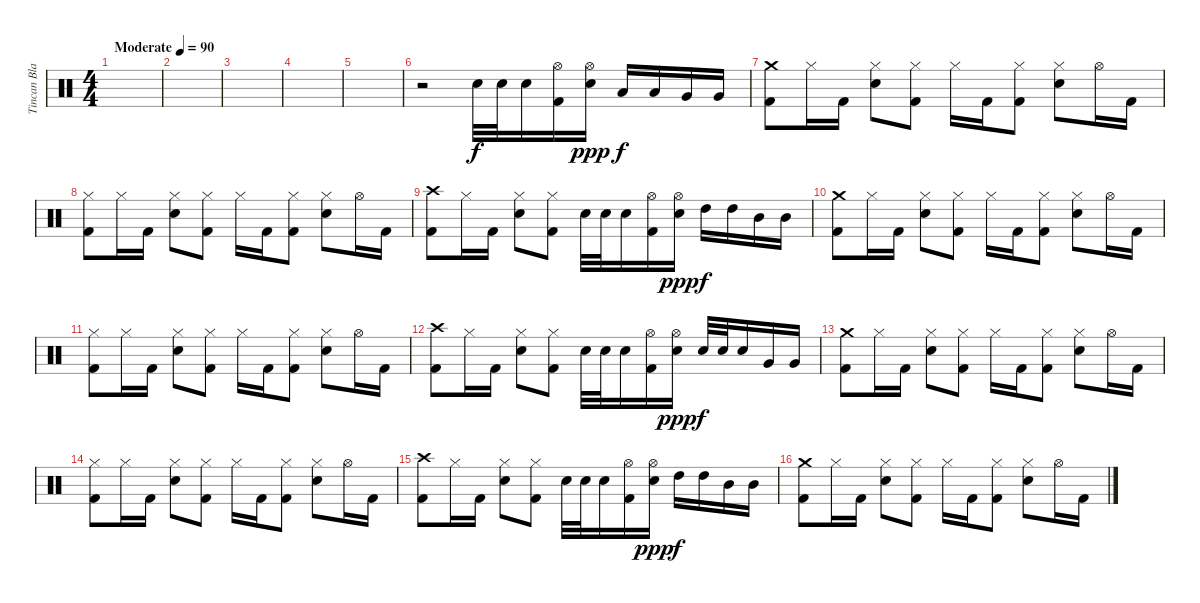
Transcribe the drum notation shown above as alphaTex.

\track ("Tincan Blaster" "Tincan Bla") {instrument percussion}
\staff {score}
\articulation defaults
\ts (4 4)
\tempo (90 "Moderate")
\clef neutral
\ks c
|
|
|
|
|
r.2 "Electric Snare (hit)".32 "Electric Snare (hit)".32 "Electric Snare (hit)".16 ("Hi-Hat (open)" "Kick (hit) 2").16 ("Hi-Hat (open)" "Electric Snare (hit)").16{dy ppp} "Low Tom (hit)".16{dy f} "Low Tom (hit)".16 "Very Low Tom (hit)".16 "Very Low Tom (hit)".16 |
("Crash medium (hit)" "Kick (hit) 2").8 "Hi-Hat (closed)".16 "Kick (hit) 2".16 ("Hi-Hat (closed)" "Electric Snare (hit)").8 ("Hi-Hat (closed)" "Kick (hit) 2").8 "Hi-Hat (closed)".16 "Kick (hit) 2".16 ("Hi-Hat (closed)" "Kick (hit) 2").8 ("Hi-Hat (closed)" "Electric Snare (hit)").8 "Hi-Hat (open)".16 "Kick (hit) 2".16 |
("Hi-Hat (closed)" "Kick (hit) 2").8 "Hi-Hat (closed)".16 "Kick (hit) 2".16 ("Hi-Hat (closed)" "Electric Snare (hit)").8 ("Hi-Hat (closed)" "Kick (hit) 2").8 "Hi-Hat (closed)".16 "Kick (hit) 2".16 ("Hi-Hat (closed)" "Kick (hit) 2").8 ("Hi-Hat (closed)" "Electric Snare (hit)").8 "Hi-Hat (open)".16 "Kick (hit) 2".16 |
("Crash high (hit)" "Kick (hit) 2").8 "Hi-Hat (closed)".16 "Kick (hit) 2".16 ("Hi-Hat (closed)" "Electric Snare (hit)").8 ("Hi-Hat (closed)" "Kick (hit) 2").8 "Electric Snare (hit)".32 "Electric Snare (hit)".32 "Electric Snare (hit)".16 ("Hi-Hat (open)" "Kick (hit) 2").16 ("Hi-Hat (open)" "Electric Snare (hit)").16{dy ppp} "High Tom (hit)".16{dy f} "High Tom (hit)".16 "Mid Tom (hit)".16 "Mid Tom (hit)".16 |
("Crash medium (hit)" "Kick (hit) 2").8 "Hi-Hat (closed)".16 "Kick (hit) 2".16 ("Hi-Hat (closed)" "Electric Snare (hit)").8 ("Hi-Hat (closed)" "Kick (hit) 2").8 "Hi-Hat (closed)".16 "Kick (hit) 2".16 ("Hi-Hat (closed)" "Kick (hit) 2").8 ("Hi-Hat (closed)" "Electric Snare (hit)").8 "Hi-Hat (open)".16 "Kick (hit) 2".16 |
("Hi-Hat (closed)" "Kick (hit) 2").8 "Hi-Hat (closed)".16 "Kick (hit) 2".16 ("Hi-Hat (closed)" "Electric Snare (hit)").8 ("Hi-Hat (closed)" "Kick (hit) 2").8 "Hi-Hat (closed)".16 "Kick (hit) 2".16 ("Hi-Hat (closed)" "Kick (hit) 2").8 ("Hi-Hat (closed)" "Electric Snare (hit)").8 "Hi-Hat (open)".16 "Kick (hit) 2".16 |
("Crash high (hit)" "Kick (hit) 2").8 "Hi-Hat (closed)".16 "Kick (hit) 2".16 ("Hi-Hat (closed)" "Electric Snare (hit)").8 ("Hi-Hat (closed)" "Kick (hit) 2").8 "Electric Snare (hit)".32 "Electric Snare (hit)".32 "Electric Snare (hit)".16 ("Hi-Hat (open)" "Kick (hit) 2").16 ("Hi-Hat (open)" "Electric Snare (hit)").16{dy ppp} "Electric Snare (hit)".32{dy f} "Electric Snare (hit)".32 "Electric Snare (hit)".16 "Very Low Tom (hit)".16 "Very Low Tom (hit)".16 |
("Crash medium (hit)" "Kick (hit) 2").8 "Hi-Hat (closed)".16 "Kick (hit) 2".16 ("Hi-Hat (closed)" "Electric Snare (hit)").8 ("Hi-Hat (closed)" "Kick (hit) 2").8 "Hi-Hat (closed)".16 "Kick (hit) 2".16 ("Hi-Hat (closed)" "Kick (hit) 2").8 ("Hi-Hat (closed)" "Electric Snare (hit)").8 "Hi-Hat (open)".16 "Kick (hit) 2".16 |
("Hi-Hat (closed)" "Kick (hit) 2").8 "Hi-Hat (closed)".16 "Kick (hit) 2".16 ("Hi-Hat (closed)" "Electric Snare (hit)").8 ("Hi-Hat (closed)" "Kick (hit) 2").8 "Hi-Hat (closed)".16 "Kick (hit) 2".16 ("Hi-Hat (closed)" "Kick (hit) 2").8 ("Hi-Hat (closed)" "Electric Snare (hit)").8 "Hi-Hat (open)".16 "Kick (hit) 2".16 |
("Crash high (hit)" "Kick (hit) 2").8 "Hi-Hat (closed)".16 "Kick (hit) 2".16 ("Hi-Hat (closed)" "Electric Snare (hit)").8 ("Hi-Hat (closed)" "Kick (hit) 2").8 "Electric Snare (hit)".32 "Electric Snare (hit)".32 "Electric Snare (hit)".16 ("Hi-Hat (open)" "Kick (hit) 2").16 ("Hi-Hat (open)" "Electric Snare (hit)").16{dy ppp} "High Tom (hit)".16{dy f} "High Tom (hit)".16 "Mid Tom (hit)".16 "Mid Tom (hit)".16 |
("Crash medium (hit)" "Kick (hit) 2").8 "Hi-Hat (closed)".16 "Kick (hit) 2".16 ("Hi-Hat (closed)" "Electric Snare (hit)").8 ("Hi-Hat (closed)" "Kick (hit) 2").8 "Hi-Hat (closed)".16 "Kick (hit) 2".16 ("Hi-Hat (closed)" "Kick (hit) 2").8 ("Hi-Hat (closed)" "Electric Snare (hit)").8 "Hi-Hat (open)".16 "Kick (hit) 2".16
